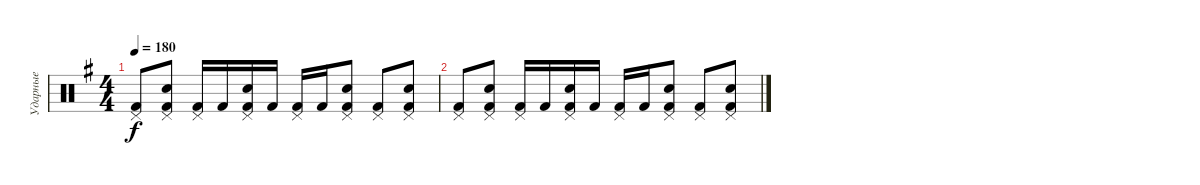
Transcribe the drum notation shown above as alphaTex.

\track ("Ударные" "Ударные") {instrument percussion}
\staff {score}
\articulation defaults
\ts (4 4)
\tempo 180
\clef neutral
\ks g
("Pedal Hi-Hat (hit)" "Kick (hit) 2").8{dy f} ("Pedal Hi-Hat (hit)" "Electric Snare (hit)" "Kick (hit) 2").8 ("Pedal Hi-Hat (hit)" "Kick (hit) 2").16 "Kick (hit) 2".16 ("Pedal Hi-Hat (hit)" "Electric Snare (hit)" "Kick (hit) 2").16 "Kick (hit) 2".16 ("Pedal Hi-Hat (hit)" "Kick (hit) 2").16 "Kick (hit) 2".16 ("Pedal Hi-Hat (hit)" "Electric Snare (hit)" "Kick (hit) 2").8 ("Pedal Hi-Hat (hit)" "Kick (hit) 2").8 ("Pedal Hi-Hat (hit)" "Electric Snare (hit)" "Kick (hit) 2").8 |
("Pedal Hi-Hat (hit)" "Kick (hit) 2").8 ("Pedal Hi-Hat (hit)" "Electric Snare (hit)" "Kick (hit) 2").8 ("Pedal Hi-Hat (hit)" "Kick (hit) 2").16 "Kick (hit) 2".16 ("Pedal Hi-Hat (hit)" "Electric Snare (hit)" "Kick (hit) 2").16 "Kick (hit) 2".16 ("Pedal Hi-Hat (hit)" "Kick (hit) 2").16 "Kick (hit) 2".16 ("Pedal Hi-Hat (hit)" "Electric Snare (hit)" "Kick (hit) 2").8 ("Pedal Hi-Hat (hit)" "Kick (hit) 2").8 ("Pedal Hi-Hat (hit)" "Electric Snare (hit)" "Kick (hit) 2").8
